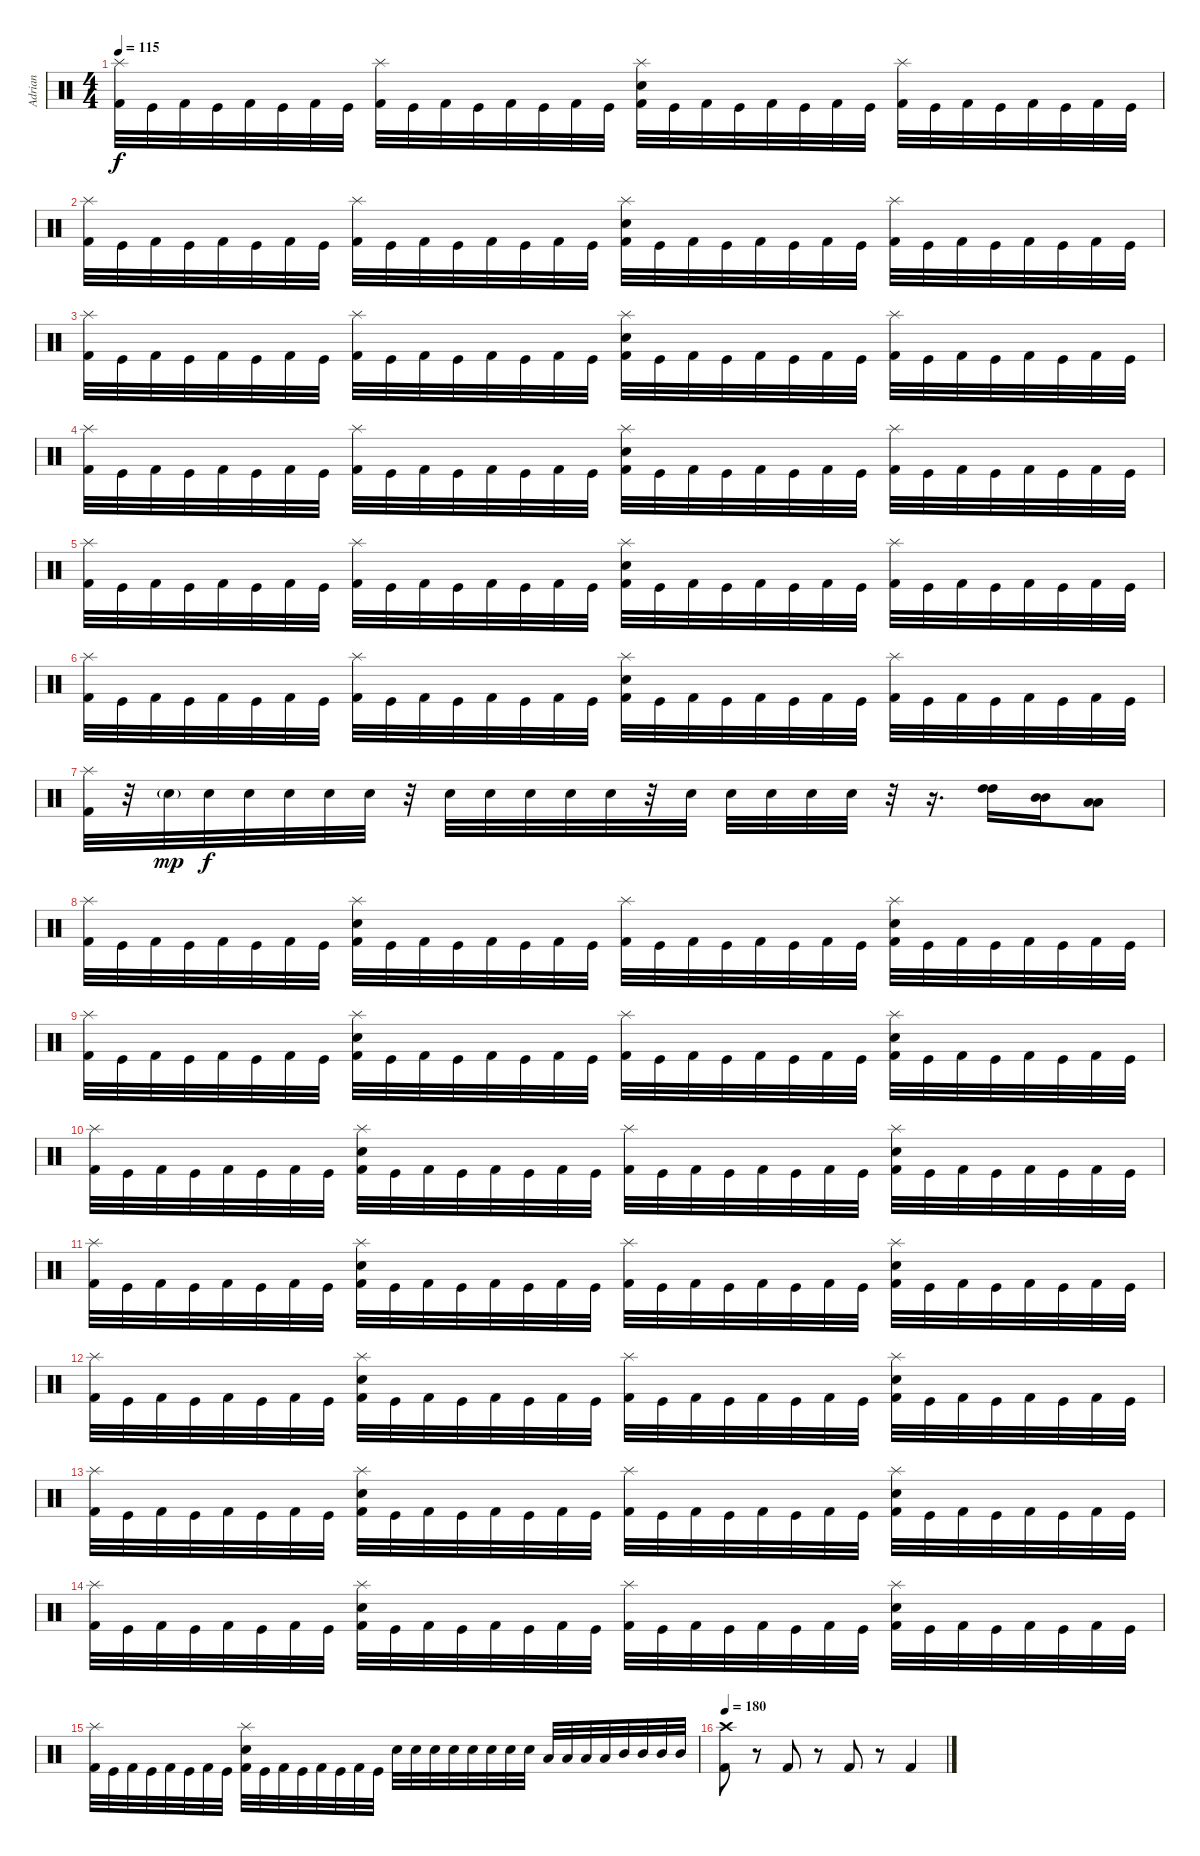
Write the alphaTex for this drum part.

\track ("Adrian" "Adrian") {instrument percussion}
\staff {score}
\articulation defaults
\ts (4 4)
\tempo 115
\clef neutral
\ks c
("Splash (hit)" "Kick (hit) 2").32{dy f} "Kick (hit)".32 "Kick (hit) 2".32 "Kick (hit)".32 "Kick (hit) 2".32 "Kick (hit)".32 "Kick (hit) 2".32 "Kick (hit)".32 ("Splash (hit)" "Kick (hit) 2").32 "Kick (hit)".32 "Kick (hit) 2".32 "Kick (hit)".32 "Kick (hit) 2".32 "Kick (hit)".32 "Kick (hit) 2".32 "Kick (hit)".32 ("Splash (hit)" "Electric Snare (hit)" "Kick (hit) 2").32 "Kick (hit)".32 "Kick (hit) 2".32 "Kick (hit)".32 "Kick (hit) 2".32 "Kick (hit)".32 "Kick (hit) 2".32 "Kick (hit)".32 ("Splash (hit)" "Kick (hit) 2").32 "Kick (hit)".32 "Kick (hit) 2".32 "Kick (hit)".32 "Kick (hit) 2".32 "Kick (hit)".32 "Kick (hit) 2".32 "Kick (hit)".32 |
("Splash (hit)" "Kick (hit) 2").32 "Kick (hit)".32 "Kick (hit) 2".32 "Kick (hit)".32 "Kick (hit) 2".32 "Kick (hit)".32 "Kick (hit) 2".32 "Kick (hit)".32 ("Splash (hit)" "Kick (hit) 2").32 "Kick (hit)".32 "Kick (hit) 2".32 "Kick (hit)".32 "Kick (hit) 2".32 "Kick (hit)".32 "Kick (hit) 2".32 "Kick (hit)".32 ("Splash (hit)" "Electric Snare (hit)" "Kick (hit) 2").32 "Kick (hit)".32 "Kick (hit) 2".32 "Kick (hit)".32 "Kick (hit) 2".32 "Kick (hit)".32 "Kick (hit) 2".32 "Kick (hit)".32 ("Splash (hit)" "Kick (hit) 2").32 "Kick (hit)".32 "Kick (hit) 2".32 "Kick (hit)".32 "Kick (hit) 2".32 "Kick (hit)".32 "Kick (hit) 2".32 "Kick (hit)".32 |
("Splash (hit)" "Kick (hit) 2").32 "Kick (hit)".32 "Kick (hit) 2".32 "Kick (hit)".32 "Kick (hit) 2".32 "Kick (hit)".32 "Kick (hit) 2".32 "Kick (hit)".32 ("Splash (hit)" "Kick (hit) 2").32 "Kick (hit)".32 "Kick (hit) 2".32 "Kick (hit)".32 "Kick (hit) 2".32 "Kick (hit)".32 "Kick (hit) 2".32 "Kick (hit)".32 ("Splash (hit)" "Electric Snare (hit)" "Kick (hit) 2").32 "Kick (hit)".32 "Kick (hit) 2".32 "Kick (hit)".32 "Kick (hit) 2".32 "Kick (hit)".32 "Kick (hit) 2".32 "Kick (hit)".32 ("Splash (hit)" "Kick (hit) 2").32 "Kick (hit)".32 "Kick (hit) 2".32 "Kick (hit)".32 "Kick (hit) 2".32 "Kick (hit)".32 "Kick (hit) 2".32 "Kick (hit)".32 |
("Splash (hit)" "Kick (hit) 2").32 "Kick (hit)".32 "Kick (hit) 2".32 "Kick (hit)".32 "Kick (hit) 2".32 "Kick (hit)".32 "Kick (hit) 2".32 "Kick (hit)".32 ("Splash (hit)" "Kick (hit) 2").32 "Kick (hit)".32 "Kick (hit) 2".32 "Kick (hit)".32 "Kick (hit) 2".32 "Kick (hit)".32 "Kick (hit) 2".32 "Kick (hit)".32 ("Splash (hit)" "Electric Snare (hit)" "Kick (hit) 2").32 "Kick (hit)".32 "Kick (hit) 2".32 "Kick (hit)".32 "Kick (hit) 2".32 "Kick (hit)".32 "Kick (hit) 2".32 "Kick (hit)".32 ("Splash (hit)" "Kick (hit) 2").32 "Kick (hit)".32 "Kick (hit) 2".32 "Kick (hit)".32 "Kick (hit) 2".32 "Kick (hit)".32 "Kick (hit) 2".32 "Kick (hit)".32 |
("Splash (hit)" "Kick (hit) 2").32 "Kick (hit)".32 "Kick (hit) 2".32 "Kick (hit)".32 "Kick (hit) 2".32 "Kick (hit)".32 "Kick (hit) 2".32 "Kick (hit)".32 ("Splash (hit)" "Kick (hit) 2").32 "Kick (hit)".32 "Kick (hit) 2".32 "Kick (hit)".32 "Kick (hit) 2".32 "Kick (hit)".32 "Kick (hit) 2".32 "Kick (hit)".32 ("Splash (hit)" "Electric Snare (hit)" "Kick (hit) 2").32 "Kick (hit)".32 "Kick (hit) 2".32 "Kick (hit)".32 "Kick (hit) 2".32 "Kick (hit)".32 "Kick (hit) 2".32 "Kick (hit)".32 ("Splash (hit)" "Kick (hit) 2").32 "Kick (hit)".32 "Kick (hit) 2".32 "Kick (hit)".32 "Kick (hit) 2".32 "Kick (hit)".32 "Kick (hit) 2".32 "Kick (hit)".32 |
("Splash (hit)" "Kick (hit) 2").32 "Kick (hit)".32 "Kick (hit) 2".32 "Kick (hit)".32 "Kick (hit) 2".32 "Kick (hit)".32 "Kick (hit) 2".32 "Kick (hit)".32 ("Splash (hit)" "Kick (hit) 2").32 "Kick (hit)".32 "Kick (hit) 2".32 "Kick (hit)".32 "Kick (hit) 2".32 "Kick (hit)".32 "Kick (hit) 2".32 "Kick (hit)".32 ("Splash (hit)" "Electric Snare (hit)" "Kick (hit) 2").32 "Kick (hit)".32 "Kick (hit) 2".32 "Kick (hit)".32 "Kick (hit) 2".32 "Kick (hit)".32 "Kick (hit) 2".32 "Kick (hit)".32 ("Splash (hit)" "Kick (hit) 2").32 "Kick (hit)".32 "Kick (hit) 2".32 "Kick (hit)".32 "Kick (hit) 2".32 "Kick (hit)".32 "Kick (hit) 2".32 "Kick (hit)".32 |
("Splash (hit)" "Kick (hit) 2").32 r.32 "Electric Snare (hit)"{g}.32{dy mp} "Electric Snare (hit)".32{dy f} "Electric Snare (hit)".32 "Electric Snare (hit)".32 "Electric Snare (hit)".32 "Electric Snare (hit)".32 r.32 "Electric Snare (hit)".32 "Electric Snare (hit)".32 "Electric Snare (hit)".32 "Electric Snare (hit)".32 "Electric Snare (hit)".32 r.32 "Electric Snare (hit)".32 "Electric Snare (hit)".32 "Electric Snare (hit)".32 "Electric Snare (hit)".32 "Electric Snare (hit)".32 r.32 r.16{d} ("High Tom (hit)" "High Tom (hit)").16 ("Mid Tom (hit)" "Mid Tom (hit)").16 ("Low Tom (hit)" "Low Tom (hit)").8 |
("Splash (hit)" "Kick (hit) 2").32 "Kick (hit)".32 "Kick (hit) 2".32 "Kick (hit)".32 "Kick (hit) 2".32 "Kick (hit)".32 "Kick (hit) 2".32 "Kick (hit)".32 ("Splash (hit)" "Electric Snare (hit)" "Kick (hit) 2").32 "Kick (hit)".32 "Kick (hit) 2".32 "Kick (hit)".32 "Kick (hit) 2".32 "Kick (hit)".32 "Kick (hit) 2".32 "Kick (hit)".32 ("Splash (hit)" "Kick (hit) 2").32 "Kick (hit)".32 "Kick (hit) 2".32 "Kick (hit)".32 "Kick (hit) 2".32 "Kick (hit)".32 "Kick (hit) 2".32 "Kick (hit)".32 ("Splash (hit)" "Electric Snare (hit)" "Kick (hit) 2").32 "Kick (hit)".32 "Kick (hit) 2".32 "Kick (hit)".32 "Kick (hit) 2".32 "Kick (hit)".32 "Kick (hit) 2".32 "Kick (hit)".32 |
("Splash (hit)" "Kick (hit) 2").32 "Kick (hit)".32 "Kick (hit) 2".32 "Kick (hit)".32 "Kick (hit) 2".32 "Kick (hit)".32 "Kick (hit) 2".32 "Kick (hit)".32 ("Splash (hit)" "Electric Snare (hit)" "Kick (hit) 2").32 "Kick (hit)".32 "Kick (hit) 2".32 "Kick (hit)".32 "Kick (hit) 2".32 "Kick (hit)".32 "Kick (hit) 2".32 "Kick (hit)".32 ("Splash (hit)" "Kick (hit) 2").32 "Kick (hit)".32 "Kick (hit) 2".32 "Kick (hit)".32 "Kick (hit) 2".32 "Kick (hit)".32 "Kick (hit) 2".32 "Kick (hit)".32 ("Splash (hit)" "Electric Snare (hit)" "Kick (hit) 2").32 "Kick (hit)".32 "Kick (hit) 2".32 "Kick (hit)".32 "Kick (hit) 2".32 "Kick (hit)".32 "Kick (hit) 2".32 "Kick (hit)".32 |
("Splash (hit)" "Kick (hit) 2").32 "Kick (hit)".32 "Kick (hit) 2".32 "Kick (hit)".32 "Kick (hit) 2".32 "Kick (hit)".32 "Kick (hit) 2".32 "Kick (hit)".32 ("Splash (hit)" "Electric Snare (hit)" "Kick (hit) 2").32 "Kick (hit)".32 "Kick (hit) 2".32 "Kick (hit)".32 "Kick (hit) 2".32 "Kick (hit)".32 "Kick (hit) 2".32 "Kick (hit)".32 ("Splash (hit)" "Kick (hit) 2").32 "Kick (hit)".32 "Kick (hit) 2".32 "Kick (hit)".32 "Kick (hit) 2".32 "Kick (hit)".32 "Kick (hit) 2".32 "Kick (hit)".32 ("Splash (hit)" "Electric Snare (hit)" "Kick (hit) 2").32 "Kick (hit)".32 "Kick (hit) 2".32 "Kick (hit)".32 "Kick (hit) 2".32 "Kick (hit)".32 "Kick (hit) 2".32 "Kick (hit)".32 |
("Splash (hit)" "Kick (hit) 2").32 "Kick (hit)".32 "Kick (hit) 2".32 "Kick (hit)".32 "Kick (hit) 2".32 "Kick (hit)".32 "Kick (hit) 2".32 "Kick (hit)".32 ("Splash (hit)" "Electric Snare (hit)" "Kick (hit) 2").32 "Kick (hit)".32 "Kick (hit) 2".32 "Kick (hit)".32 "Kick (hit) 2".32 "Kick (hit)".32 "Kick (hit) 2".32 "Kick (hit)".32 ("Splash (hit)" "Kick (hit) 2").32 "Kick (hit)".32 "Kick (hit) 2".32 "Kick (hit)".32 "Kick (hit) 2".32 "Kick (hit)".32 "Kick (hit) 2".32 "Kick (hit)".32 ("Splash (hit)" "Electric Snare (hit)" "Kick (hit) 2").32 "Kick (hit)".32 "Kick (hit) 2".32 "Kick (hit)".32 "Kick (hit) 2".32 "Kick (hit)".32 "Kick (hit) 2".32 "Kick (hit)".32 |
("Splash (hit)" "Kick (hit) 2").32 "Kick (hit)".32 "Kick (hit) 2".32 "Kick (hit)".32 "Kick (hit) 2".32 "Kick (hit)".32 "Kick (hit) 2".32 "Kick (hit)".32 ("Splash (hit)" "Electric Snare (hit)" "Kick (hit) 2").32 "Kick (hit)".32 "Kick (hit) 2".32 "Kick (hit)".32 "Kick (hit) 2".32 "Kick (hit)".32 "Kick (hit) 2".32 "Kick (hit)".32 ("Splash (hit)" "Kick (hit) 2").32 "Kick (hit)".32 "Kick (hit) 2".32 "Kick (hit)".32 "Kick (hit) 2".32 "Kick (hit)".32 "Kick (hit) 2".32 "Kick (hit)".32 ("Splash (hit)" "Electric Snare (hit)" "Kick (hit) 2").32 "Kick (hit)".32 "Kick (hit) 2".32 "Kick (hit)".32 "Kick (hit) 2".32 "Kick (hit)".32 "Kick (hit) 2".32 "Kick (hit)".32 |
("Splash (hit)" "Kick (hit) 2").32 "Kick (hit)".32 "Kick (hit) 2".32 "Kick (hit)".32 "Kick (hit) 2".32 "Kick (hit)".32 "Kick (hit) 2".32 "Kick (hit)".32 ("Splash (hit)" "Electric Snare (hit)" "Kick (hit) 2").32 "Kick (hit)".32 "Kick (hit) 2".32 "Kick (hit)".32 "Kick (hit) 2".32 "Kick (hit)".32 "Kick (hit) 2".32 "Kick (hit)".32 ("Splash (hit)" "Kick (hit) 2").32 "Kick (hit)".32 "Kick (hit) 2".32 "Kick (hit)".32 "Kick (hit) 2".32 "Kick (hit)".32 "Kick (hit) 2".32 "Kick (hit)".32 ("Splash (hit)" "Electric Snare (hit)" "Kick (hit) 2").32 "Kick (hit)".32 "Kick (hit) 2".32 "Kick (hit)".32 "Kick (hit) 2".32 "Kick (hit)".32 "Kick (hit) 2".32 "Kick (hit)".32 |
("Splash (hit)" "Kick (hit) 2").32 "Kick (hit)".32 "Kick (hit) 2".32 "Kick (hit)".32 "Kick (hit) 2".32 "Kick (hit)".32 "Kick (hit) 2".32 "Kick (hit)".32 ("Splash (hit)" "Electric Snare (hit)" "Kick (hit) 2").32 "Kick (hit)".32 "Kick (hit) 2".32 "Kick (hit)".32 "Kick (hit) 2".32 "Kick (hit)".32 "Kick (hit) 2".32 "Kick (hit)".32 ("Splash (hit)" "Kick (hit) 2").32 "Kick (hit)".32 "Kick (hit) 2".32 "Kick (hit)".32 "Kick (hit) 2".32 "Kick (hit)".32 "Kick (hit) 2".32 "Kick (hit)".32 ("Splash (hit)" "Electric Snare (hit)" "Kick (hit) 2").32 "Kick (hit)".32 "Kick (hit) 2".32 "Kick (hit)".32 "Kick (hit) 2".32 "Kick (hit)".32 "Kick (hit) 2".32 "Kick (hit)".32 |
("Splash (hit)" "Kick (hit) 2").32 "Kick (hit)".32 "Kick (hit) 2".32 "Kick (hit)".32 "Kick (hit) 2".32 "Kick (hit)".32 "Kick (hit) 2".32 "Kick (hit)".32 ("Splash (hit)" "Electric Snare (hit)" "Kick (hit) 2").32 "Kick (hit)".32 "Kick (hit) 2".32 "Kick (hit)".32 "Kick (hit) 2".32 "Kick (hit)".32 "Kick (hit) 2".32 "Kick (hit)".32 "Electric Snare (hit)".32 "Electric Snare (hit)".32 "Electric Snare (hit)".32 "Electric Snare (hit)".32 "Electric Snare (hit)".32 "Electric Snare (hit)".32 "Electric Snare (hit)".32 "Electric Snare (hit)".32 "Low Tom (hit)".32 "Low Tom (hit)".32 "Low Tom (hit)".32 "Low Tom (hit)".32 "Mid Tom (hit)".32 "Mid Tom (hit)".32 "Mid Tom (hit)".32 "Mid Tom (hit)".32 |
\tempo 180
("Crash high (hit)" "Kick (hit) 2").8 r.8 "Kick (hit) 2".8 r.8 "Kick (hit) 2".8 r.8 "Kick (hit) 2".4
